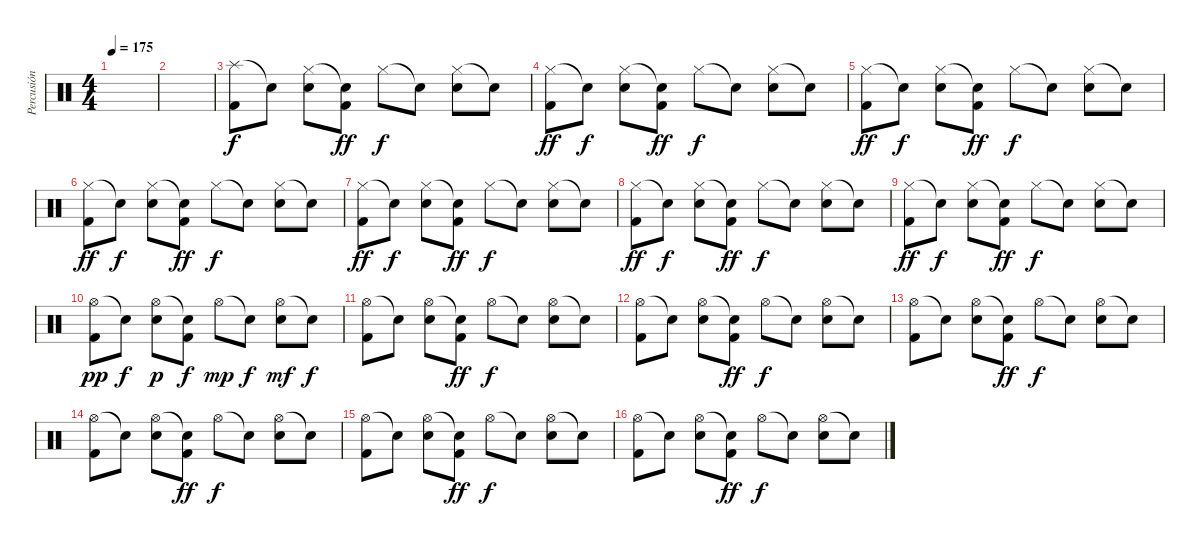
\track ("Percusión" "Percusión") {instrument percussion}
\staff {score}
\articulation defaults
\ts (4 4)
\tempo 175
\clef neutral
\ks c
|
|
("Splash (hit)" "Kick (hit) 2").8 "Snare (hit)"{t}.8{dy f} ("Hi-Hat (closed)" "Snare (hit) 2").8 ("Snare (hit)"{t} "Kick (hit) 2").8{dy ff} "Hi-Hat (closed)".8{dy f} "Snare (hit)"{t}.8 ("Hi-Hat (closed)" "Snare (hit) 2").8 "Snare (hit)"{t}.8 |
("Hi-Hat (closed)" "Kick (hit) 2").8{dy ff} "Snare (hit)"{t}.8{dy f} ("Hi-Hat (closed)" "Snare (hit) 2").8 ("Snare (hit)"{t} "Kick (hit) 2").8{dy ff} "Hi-Hat (closed)".8{dy f} "Snare (hit)"{t}.8 ("Hi-Hat (closed)" "Snare (hit) 2").8 "Snare (hit)"{t}.8 |
("Hi-Hat (closed)" "Kick (hit) 2").8{dy ff} "Snare (hit)"{t}.8{dy f} ("Hi-Hat (closed)" "Snare (hit) 2").8 ("Snare (hit)"{t} "Kick (hit) 2").8{dy ff} "Hi-Hat (closed)".8{dy f} "Snare (hit)"{t}.8 ("Hi-Hat (closed)" "Snare (hit) 2").8 "Snare (hit)"{t}.8 |
("Hi-Hat (closed)" "Kick (hit) 2").8{dy ff} "Snare (hit)"{t}.8{dy f} ("Hi-Hat (closed)" "Snare (hit) 2").8 ("Snare (hit)"{t} "Kick (hit) 2").8{dy ff} "Hi-Hat (closed)".8{dy f} "Snare (hit)"{t}.8 ("Hi-Hat (closed)" "Snare (hit) 2").8 "Snare (hit)"{t}.8 |
("Hi-Hat (closed)" "Kick (hit) 2").8{dy ff} "Snare (hit)"{t}.8{dy f} ("Hi-Hat (closed)" "Snare (hit) 2").8 ("Snare (hit)"{t} "Kick (hit) 2").8{dy ff} "Hi-Hat (closed)".8{dy f} "Snare (hit)"{t}.8 ("Hi-Hat (closed)" "Snare (hit) 2").8 "Snare (hit)"{t}.8 |
("Hi-Hat (closed)" "Kick (hit) 2").8{dy ff} "Snare (hit)"{t}.8{dy f} ("Hi-Hat (closed)" "Snare (hit) 2").8 ("Snare (hit)"{t} "Kick (hit) 2").8{dy ff} "Hi-Hat (closed)".8{dy f} "Snare (hit)"{t}.8 ("Hi-Hat (closed)" "Snare (hit) 2").8 "Snare (hit)"{t}.8 |
("Hi-Hat (closed)" "Kick (hit) 2").8{dy ff} "Snare (hit)"{t}.8{dy f} ("Hi-Hat (closed)" "Snare (hit) 2").8 ("Snare (hit)"{t} "Kick (hit) 2").8{dy ff} "Hi-Hat (closed)".8{dy f} "Snare (hit)"{t}.8 ("Hi-Hat (closed)" "Snare (hit) 2").8 "Snare (hit)"{t}.8 |
("Hi-Hat (open)" "Kick (hit) 2").8{dy pp} "Snare (hit)"{t}.8{dy f} ("Hi-Hat (open)" "Snare (hit) 2").8{dy p} ("Snare (hit)"{t} "Kick (hit) 2").8{dy f} "Hi-Hat (open)".8{dy mp} "Snare (hit)"{t}.8{dy f} ("Hi-Hat (open)" "Snare (hit) 2").8{dy mf} "Snare (hit)"{t}.8{dy f} |
("Hi-Hat (open)" "Kick (hit) 2").8 "Snare (hit)"{t}.8 ("Hi-Hat (open)" "Snare (hit) 2").8 ("Snare (hit)"{t} "Kick (hit) 2").8{dy ff} "Hi-Hat (open)".8{dy f} "Snare (hit)"{t}.8 ("Hi-Hat (open)" "Snare (hit) 2").8 "Snare (hit)"{t}.8 |
("Hi-Hat (open)" "Kick (hit) 2").8 "Snare (hit)"{t}.8 ("Hi-Hat (open)" "Snare (hit) 2").8 ("Snare (hit)"{t} "Kick (hit) 2").8{dy ff} "Hi-Hat (open)".8{dy f} "Snare (hit)"{t}.8 ("Hi-Hat (open)" "Snare (hit) 2").8 "Snare (hit)"{t}.8 |
("Hi-Hat (open)" "Kick (hit) 2").8 "Snare (hit)"{t}.8 ("Hi-Hat (open)" "Snare (hit) 2").8 ("Snare (hit)"{t} "Kick (hit) 2").8{dy ff} "Hi-Hat (open)".8{dy f} "Snare (hit)"{t}.8 ("Hi-Hat (open)" "Snare (hit) 2").8 "Snare (hit)"{t}.8 |
("Hi-Hat (open)" "Kick (hit) 2").8 "Snare (hit)"{t}.8 ("Hi-Hat (open)" "Snare (hit) 2").8 ("Snare (hit)"{t} "Kick (hit) 2").8{dy ff} "Hi-Hat (open)".8{dy f} "Snare (hit)"{t}.8 ("Hi-Hat (open)" "Snare (hit) 2").8 "Snare (hit)"{t}.8 |
("Hi-Hat (open)" "Kick (hit) 2").8 "Snare (hit)"{t}.8 ("Hi-Hat (open)" "Snare (hit) 2").8 ("Snare (hit)"{t} "Kick (hit) 2").8{dy ff} "Hi-Hat (open)".8{dy f} "Snare (hit)"{t}.8 ("Hi-Hat (open)" "Snare (hit) 2").8 "Snare (hit)"{t}.8 |
("Hi-Hat (open)" "Kick (hit) 2").8 "Snare (hit)"{t}.8 ("Hi-Hat (open)" "Snare (hit) 2").8 ("Snare (hit)"{t} "Kick (hit) 2").8{dy ff} "Hi-Hat (open)".8{dy f} "Snare (hit)"{t}.8 ("Hi-Hat (open)" "Snare (hit) 2").8 "Snare (hit)"{t}.8
